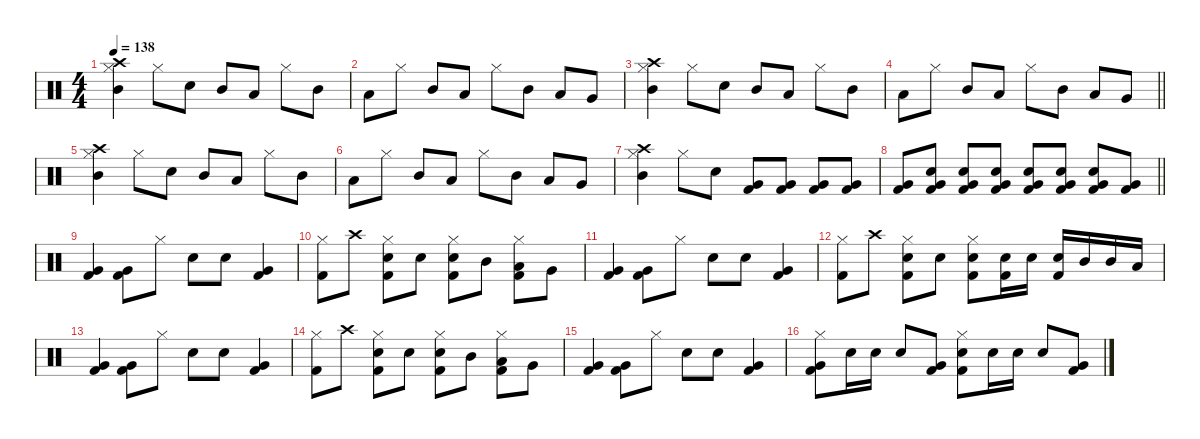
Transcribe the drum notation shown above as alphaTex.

\defaultSystemsLayout 4
\hideDynamics
\bracketExtendMode nobrackets
\singleTrackTrackNamePolicy hidden
\multiTrackTrackNamePolicy hidden
\otherSystemsTrackNameOrientation horizontal
\track ("Drums" "drm.") {instrument percussion}
\staff {score}
\articulation defaults
\ts (4 4)
\tempo 138
\clef neutral
\ks c
("Crash high (hit)" "Hi-Hat (closed)" "Mid Tom (hit)").4{dy ff beam Down} "Hi-Hat (closed)".8{beam Down} "Snare (hit) 2".8{beam Down} "Mid Tom (hit)".8{beam Up} "Low Tom (hit)".8{beam Up} "Hi-Hat (closed)".8{beam Down} "Mid Tom (hit)".8{beam Down} |
"Low Tom (hit)".8{beam Down} "Hi-Hat (closed)".8{beam Down} "Mid Tom (hit)".8{beam Up} "Low Tom (hit)".8{beam Up} "Hi-Hat (closed)".8{beam Down} "Mid Tom (hit)".8{beam Down} "Low Tom (hit)".8{beam Up} "Very Low Tom (hit)".8{beam Up} |
("Crash high (hit)" "Hi-Hat (closed)" "Mid Tom (hit)").4{beam Down} "Hi-Hat (closed)".8{beam Down} "Snare (hit) 2".8{beam Down} "Mid Tom (hit)".8{beam Up} "Low Tom (hit)".8{beam Up} "Hi-Hat (closed)".8{beam Down} "Mid Tom (hit)".8{beam Down} |
\barLineRight lightlight "Low Tom (hit)".8{beam Down} "Hi-Hat (closed)".8{beam Down} "Mid Tom (hit)".8{beam Up} "Low Tom (hit)".8{beam Up} "Hi-Hat (closed)".8{beam Down} "Mid Tom (hit)".8{beam Down} "Low Tom (hit)".8{beam Up} "Very Low Tom (hit)".8{beam Up}
|
("Crash high (hit)" "Hi-Hat (closed)" "Mid Tom (hit)").4{beam Down} "Hi-Hat (closed)".8{beam Down} "Snare (hit) 2".8{beam Down} "Mid Tom (hit)".8{beam Up} "Low Tom (hit)".8{beam Up} "Hi-Hat (closed)".8{beam Down} "Mid Tom (hit)".8{beam Down} |
"Low Tom (hit)".8{beam Down} "Hi-Hat (closed)".8{beam Down} "Mid Tom (hit)".8{beam Up} "Low Tom (hit)".8{beam Up} "Hi-Hat (closed)".8{beam Down} "Mid Tom (hit)".8{beam Down} "Low Tom (hit)".8{beam Up} "Very Low Tom (hit)".8{beam Up} |
("Crash high (hit)" "Hi-Hat (closed)" "Mid Tom (hit)").4{beam Down} "Hi-Hat (closed)".8{beam Down} "Snare (hit) 2".8{beam Down} ("Very Low Tom (hit)" "Kick (hit) 2").8{dy p beam Up} ("Very Low Tom (hit)" "Kick (hit) 2").8{beam Up} ("Very Low Tom (hit)" "Kick (hit) 2").8{dy mp beam Up} ("Very Low Tom (hit)" "Kick (hit) 2").8{dy mf beam Up} |
\barLineRight lightlight
("Very Low Tom (hit)" "Kick (hit) 2").8{dy f beam Up} ("Snare (hit) 2" "Very Low Tom (hit)" "Kick (hit) 2").8{dy mp beam Up} ("Snare (hit) 2" "Very Low Tom (hit)" "Kick (hit) 2").8{beam Up} ("Snare (hit) 2" "Very Low Tom (hit)" "Kick (hit) 2").8{dy mf beam Up} ("Snare (hit) 2" "Very Low Tom (hit)" "Kick (hit) 2").8{beam Up} ("Snare (hit) 2" "Very Low Tom (hit)" "Kick (hit) 2").8{dy f beam Up} ("Snare (hit) 2" "Very Low Tom (hit)" "Kick (hit) 2").8{dy ff beam Up} ("Very Low Tom (hit)" "Kick (hit) 2").8{dy fff beam Up} |
("Very Low Tom (hit)" "Kick (hit) 2").4{beam Up} ("Very Low Tom (hit)" "Kick (hit) 2").8{dy mp beam Down} "Hi-Hat (closed)".8{dy fff beam Down} "Snare (hit) 2".8{dy f beam Down} "Snare (hit) 2".8{dy mp beam Down} ("Very Low Tom (hit)" "Kick (hit) 2").4{beam Up} |
("Hi-Hat (closed)" "Kick (hit) 2").8{beam Down} "Crash high (hit)".8{beam Down} ("Hi-Hat (closed)" "Snare (hit) 2" "Kick (hit) 2").8{beam Down} "Snare (hit) 2".8{dy f beam Down} ("Hi-Hat (closed)" "Snare (hit) 2" "Kick (hit) 2").8{dy mp beam Down} "Mid Tom (hit)".8{beam Down} ("Hi-Hat (closed)" "Low Tom (hit)" "Kick (hit) 2").8{beam Down} "Very Low Tom (hit)".8{beam Down} |
("Very Low Tom (hit)" "Kick (hit) 2").4{dy fff beam Up} ("Very Low Tom (hit)" "Kick (hit) 2").8{dy mp beam Down} "Hi-Hat (closed)".8{dy fff beam Down} "Snare (hit) 2".8{dy f beam Down} "Snare (hit) 2".8{dy mp beam Down} ("Very Low Tom (hit)" "Kick (hit) 2").4{beam Up} |
("Hi-Hat (closed)" "Kick (hit) 2").8{beam Down} "Crash high (hit)".8{beam Down} ("Hi-Hat (closed)" "Snare (hit) 2" "Kick (hit) 2").8{dy f beam Down} "Snare (hit) 2".8{beam Down} ("Hi-Hat (closed)" "Snare (hit) 2" "Kick (hit) 2").8{beam Down} ("Snare (hit) 2" "Kick (hit) 2").16{beam Down} "Snare (hit) 2".16{beam Down} ("Snare (hit) 2" "Kick (hit) 2").16{beam Up} "Mid Tom (hit)".16{beam Up} "Mid Tom (hit)".16{beam Up} "Low Tom (hit)".16{beam Up} |
("Very Low Tom (hit)" "Kick (hit) 2").4{dy fff beam Up} ("Very Low Tom (hit)" "Kick (hit) 2").8{dy mp beam Down} "Hi-Hat (closed)".8{dy fff beam Down} "Snare (hit) 2".8{dy f beam Down} "Snare (hit) 2".8{dy mp beam Down} ("Very Low Tom (hit)" "Kick (hit) 2").4{beam Up} |
("Hi-Hat (closed)" "Kick (hit) 2").8{beam Down} "Crash high (hit)".8{beam Down} ("Hi-Hat (closed)" "Snare (hit) 2" "Kick (hit) 2").8{beam Down} "Snare (hit) 2".8{dy f beam Down} ("Hi-Hat (closed)" "Snare (hit) 2" "Kick (hit) 2").8{dy mp beam Down} "Mid Tom (hit)".8{beam Down} ("Hi-Hat (closed)" "Low Tom (hit)" "Kick (hit) 2").8{beam Down} "Very Low Tom (hit)".8{beam Down} |
("Very Low Tom (hit)" "Kick (hit) 2").4{dy fff beam Up} ("Very Low Tom (hit)" "Kick (hit) 2").8{dy mp beam Down} "Hi-Hat (closed)".8{dy fff beam Down} "Snare (hit) 2".8{dy f beam Down} "Snare (hit) 2".8{dy mp beam Down} ("Very Low Tom (hit)" "Kick (hit) 2").4{beam Up} |
("Hi-Hat (closed)" "Very Low Tom (hit)" "Kick (hit) 2").8{beam Down} "Snare (hit) 2".16{dy f beam Down} "Snare (hit) 2".16{beam Down} "Snare (hit) 2".8{beam Up} ("Very Low Tom (hit)" "Kick (hit) 2").8{beam Up} ("Hi-Hat (closed)" "Snare (hit) 2" "Kick (hit) 2").8{beam Down} "Snare (hit) 2".16{beam Down} "Snare (hit) 2".16{beam Down} "Snare (hit) 2".8{beam Up} ("Very Low Tom (hit)" "Kick (hit) 2").8{beam Up}
